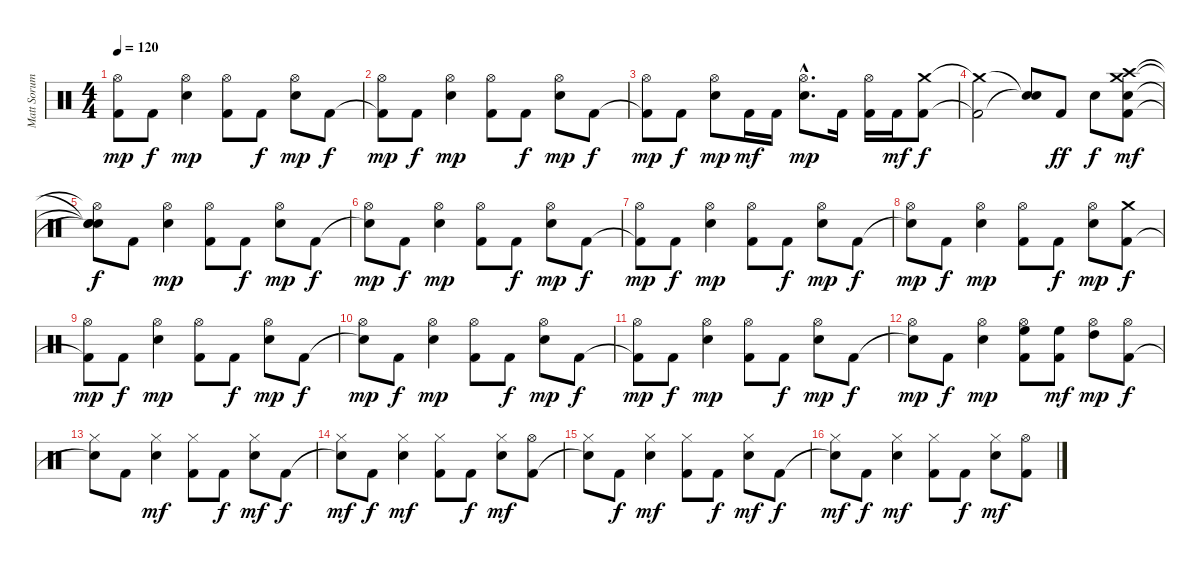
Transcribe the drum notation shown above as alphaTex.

\track ("Matt Sorum" "Matt Sorum") {instrument percussion}
\staff {score}
\articulation defaults
\ts (4 4)
\tempo 120
\clef neutral
\ks c
("Kick (hit) 2"{t} "Hi-Hat (open)").8{dy mp} "Kick (hit) 2".8{dy f} ("Snare (hit) 2" "Hi-Hat (open)").4{dy mp} ("Kick (hit) 2" "Hi-Hat (open)").8 "Kick (hit) 2".8{dy f} ("Snare (hit) 2" "Hi-Hat (open)").8{dy mp} "Kick (hit) 2".8{dy f} |
("Kick (hit) 2"{t} "Hi-Hat (open)").8{dy mp} "Kick (hit) 2".8{dy f} ("Snare (hit) 2" "Hi-Hat (open)").4{dy mp} ("Kick (hit) 2" "Hi-Hat (open)").8 "Kick (hit) 2".8{dy f} ("Snare (hit) 2" "Hi-Hat (open)").8{dy mp} "Kick (hit) 2".8{dy f} |
("Kick (hit) 2"{t} "Hi-Hat (open)").8{dy mp} "Kick (hit) 2".8{dy f} ("Snare (hit) 2" "Hi-Hat (open)").8{dy mp} "Kick (hit) 2".16{dy mf} "Kick (hit) 2".16 ("Snare (hit) 2"{hac} "Hi-Hat (open)"{hac}).8{d dy mp} "Kick (hit) 2".16 ("Kick (hit) 2" "Hi-Hat (open)").16 "Kick (hit) 2".16{dy mf} ("Kick (hit) 2" "Crash medium (hit)").8{dy f} |
("Kick (hit) 2"{t} "Crash medium (hit)"{t}).2 ("Snare (hit)"{t} "Snare (hit)"{t}).8 "Kick (hit) 2".8{dy ff} "Snare (hit) 2".8{dy f} ("Kick (hit) 2" "Snare (hit) 2" "Crash medium (hit)" "Crash high (hit)").8{dy mf} |
("Snare (hit)"{t} "Snare (hit)"{t} "Hi-Hat (open)"{t} "Snare (hit)"{t}).8{dy f} "Kick (hit) 2".8 ("Snare (hit) 2" "Hi-Hat (open)").4{dy mp} ("Kick (hit) 2" "Hi-Hat (open)").8 "Kick (hit) 2".8{dy f} ("Snare (hit) 2" "Hi-Hat (open)").8{dy mp} "Kick (hit) 2".8{dy f} |
("Snare (hit)"{t} "Hi-Hat (open)").8{dy mp} "Kick (hit) 2".8{dy f} ("Snare (hit) 2" "Hi-Hat (open)").4{dy mp} ("Kick (hit) 2" "Hi-Hat (open)").8 "Kick (hit) 2".8{dy f} ("Snare (hit) 2" "Hi-Hat (open)").8{dy mp} "Kick (hit) 2".8{dy f} |
("Kick (hit) 2"{t} "Hi-Hat (open)").8{dy mp} "Kick (hit) 2".8{dy f} ("Snare (hit) 2" "Hi-Hat (open)").4{dy mp} ("Kick (hit) 2" "Hi-Hat (open)").8 "Kick (hit) 2".8{dy f} ("Snare (hit) 2" "Hi-Hat (open)").8{dy mp} "Kick (hit) 2".8{dy f} |
("Snare (hit)"{t} "Hi-Hat (open)").8{dy mp} "Kick (hit) 2".8{dy f} ("Snare (hit) 2" "Hi-Hat (open)").4{dy mp} ("Kick (hit) 2" "Hi-Hat (open)").8 "Kick (hit) 2".8{dy f} ("Snare (hit) 2" "Hi-Hat (open)").8{dy mp} ("Kick (hit) 2" "Crash medium (hit)").8{dy f} |
("Kick (hit) 2"{t} "Hi-Hat (open)").8{dy mp} "Kick (hit) 2".8{dy f} ("Snare (hit) 2" "Hi-Hat (open)").4{dy mp} ("Kick (hit) 2" "Hi-Hat (open)").8 "Kick (hit) 2".8{dy f} ("Snare (hit) 2" "Hi-Hat (open)").8{dy mp} "Kick (hit) 2".8{dy f} |
("Snare (hit)"{t} "Hi-Hat (open)").8{dy mp} "Kick (hit) 2".8{dy f} ("Snare (hit) 2" "Hi-Hat (open)").4{dy mp} ("Kick (hit) 2" "Hi-Hat (open)").8 "Kick (hit) 2".8{dy f} ("Snare (hit) 2" "Hi-Hat (open)").8{dy mp} "Kick (hit) 2".8{dy f} |
("Kick (hit) 2"{t} "Hi-Hat (open)").8{dy mp} "Kick (hit) 2".8{dy f} ("Snare (hit) 2" "Hi-Hat (open)").4{dy mp} ("Kick (hit) 2" "Hi-Hat (open)").8 "Kick (hit) 2".8{dy f} ("Snare (hit) 2" "Hi-Hat (open)").8{dy mp} "Kick (hit) 2".8{dy f} |
("Snare (hit)"{t} "Hi-Hat (open)").8{dy mp} "Kick (hit) 2".8{dy f} ("Snare (hit) 2" "Hi-Hat (open)").4{dy mp} ("Kick (hit) 2" "High Floor Tom (hit)" "Hi-Hat (open)").8 ("Kick (hit) 2" "High Floor Tom (hit)").8{dy mf} ("High Tom (hit)" "Hi-Hat (open)").8{dy mp} ("Kick (hit) 2" "Hi-Hat (open)").8{dy f} |
("Snare (hit)"{t} "Hi-Hat (closed)").8 "Kick (hit) 2".8 ("Snare (hit) 2" "Hi-Hat (closed)").4{dy mf} ("Kick (hit) 2" "Hi-Hat (closed)").8 "Kick (hit) 2".8{dy f} ("Snare (hit) 2" "Hi-Hat (closed)").8{dy mf} "Kick (hit) 2".8{dy f} |
("Snare (hit)"{t} "Hi-Hat (closed)").8{dy mf} "Kick (hit) 2".8{dy f} ("Snare (hit) 2" "Hi-Hat (closed)").4{dy mf} ("Kick (hit) 2" "Hi-Hat (closed)").8 "Kick (hit) 2".8{dy f} ("Snare (hit) 2" "Hi-Hat (closed)").8{dy mf} ("Kick (hit) 2" "Hi-Hat (open)").8 |
("Snare (hit)"{t} "Hi-Hat (closed)").8 "Kick (hit) 2".8{dy f} ("Snare (hit) 2" "Hi-Hat (closed)").4{dy mf} ("Kick (hit) 2" "Hi-Hat (closed)").8 "Kick (hit) 2".8{dy f} ("Snare (hit) 2" "Hi-Hat (closed)").8{dy mf} "Kick (hit) 2".8{dy f} |
("Snare (hit)"{t} "Hi-Hat (closed)").8{dy mf} "Kick (hit) 2".8{dy f} ("Snare (hit) 2" "Hi-Hat (closed)").4{dy mf} ("Kick (hit) 2" "Hi-Hat (closed)").8 "Kick (hit) 2".8{dy f} ("Snare (hit) 2" "Hi-Hat (closed)").8{dy mf} ("Kick (hit) 2" "Hi-Hat (open)").8
